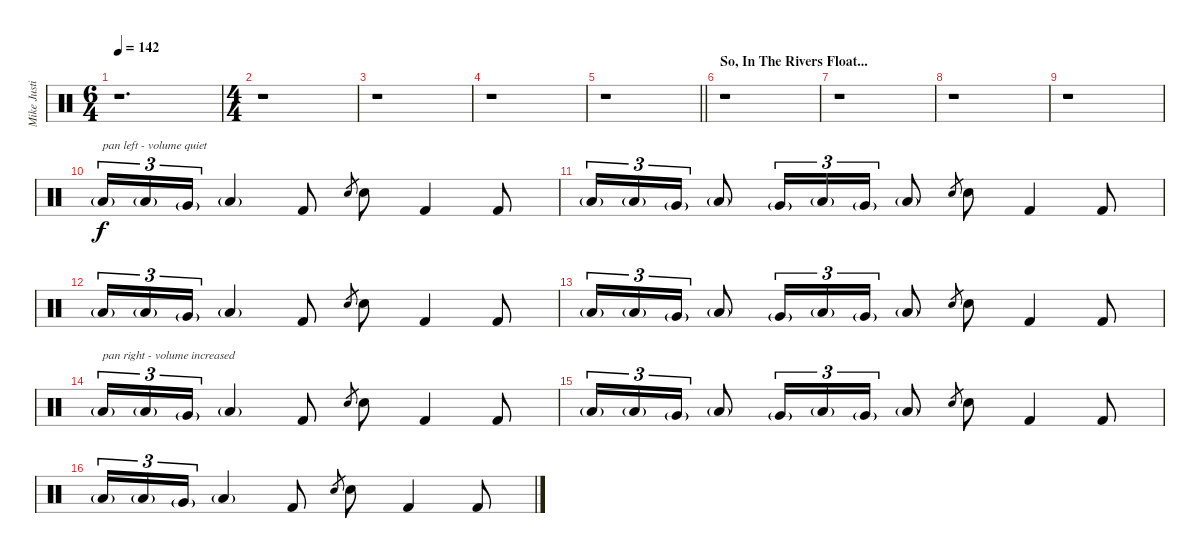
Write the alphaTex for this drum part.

\track ("Mike Justian" "Mike Justi") {instrument percussion}
\staff {score}
\articulation defaults
\ts (6 4)
\tempo 142
\clef neutral
\ks c
r.1{d dy f} |
\ts (4 4)
r.1 |
r.1 |
r.1 |
\barLineRight lightlight
r.1 |
\section ("" "So, In The Rivers Float...")
r.1 |
r.1 |
r.1 |
r.1 |
"Low Floor Tom (hit)"{g}.16{tu (3 2) txt "pan left - volume quiet" volume 7 balance 0} "Low Tom (hit)"{g}.16{tu (3 2)} "Very Low Tom (hit)"{g}.16{tu (3 2)} "Low Floor Tom (hit)"{g}.4 "Kick (hit) 2".8 "Electric Snare (hit)".8{gr} "Electric Snare (hit)".8 "Kick (hit) 2".4 "Kick (hit) 2".8 |
"Low Floor Tom (hit)"{g}.16{tu (3 2)} "Low Tom (hit)"{g}.16{tu (3 2)} "Very Low Tom (hit)"{g}.16{tu (3 2)} "Low Floor Tom (hit)"{g}.8 "Very Low Tom (hit)"{g}.16{tu (3 2)} "Low Tom (hit)"{g}.16{tu (3 2)} "Very Low Tom (hit)"{g}.16{tu (3 2)} "Low Floor Tom (hit)"{g}.8 "Electric Snare (hit)".8{gr} "Electric Snare (hit)".8 "Kick (hit) 2".4 "Kick (hit) 2".8 |
"Low Floor Tom (hit)"{g}.16{tu (3 2)} "Low Tom (hit)"{g}.16{tu (3 2)} "Very Low Tom (hit)"{g}.16{tu (3 2)} "Low Floor Tom (hit)"{g}.4 "Kick (hit) 2".8 "Electric Snare (hit)".8{gr} "Electric Snare (hit)".8 "Kick (hit) 2".4 "Kick (hit) 2".8 |
"Low Floor Tom (hit)"{g}.16{tu (3 2)} "Low Tom (hit)"{g}.16{tu (3 2)} "Very Low Tom (hit)"{g}.16{tu (3 2)} "Low Floor Tom (hit)"{g}.8 "Very Low Tom (hit)"{g}.16{tu (3 2)} "Low Tom (hit)"{g}.16{tu (3 2)} "Very Low Tom (hit)"{g}.16{tu (3 2)} "Low Floor Tom (hit)"{g}.8 "Electric Snare (hit)".8{gr} "Electric Snare (hit)".8 "Kick (hit) 2".4 "Kick (hit) 2".8 |
"Low Floor Tom (hit)"{g}.16{tu (3 2) txt "pan right - volume increased" volume 9 balance 11} "Low Tom (hit)"{g}.16{tu (3 2)} "Very Low Tom (hit)"{g}.16{tu (3 2)} "Low Floor Tom (hit)"{g}.4 "Kick (hit) 2".8 "Electric Snare (hit)".8{gr} "Electric Snare (hit)".8 "Kick (hit) 2".4 "Kick (hit) 2".8 |
"Low Floor Tom (hit)"{g}.16{tu (3 2)} "Low Tom (hit)"{g}.16{tu (3 2)} "Very Low Tom (hit)"{g}.16{tu (3 2)} "Low Floor Tom (hit)"{g}.8 "Very Low Tom (hit)"{g}.16{tu (3 2)} "Low Tom (hit)"{g}.16{tu (3 2)} "Very Low Tom (hit)"{g}.16{tu (3 2)} "Low Floor Tom (hit)"{g}.8 "Electric Snare (hit)".8{gr} "Electric Snare (hit)".8 "Kick (hit) 2".4 "Kick (hit) 2".8 |
"Low Floor Tom (hit)"{g}.16{tu (3 2)} "Low Tom (hit)"{g}.16{tu (3 2)} "Very Low Tom (hit)"{g}.16{tu (3 2)} "Low Floor Tom (hit)"{g}.4 "Kick (hit) 2".8 "Electric Snare (hit)".8{gr} "Electric Snare (hit)".8 "Kick (hit) 2".4 "Kick (hit) 2".8
